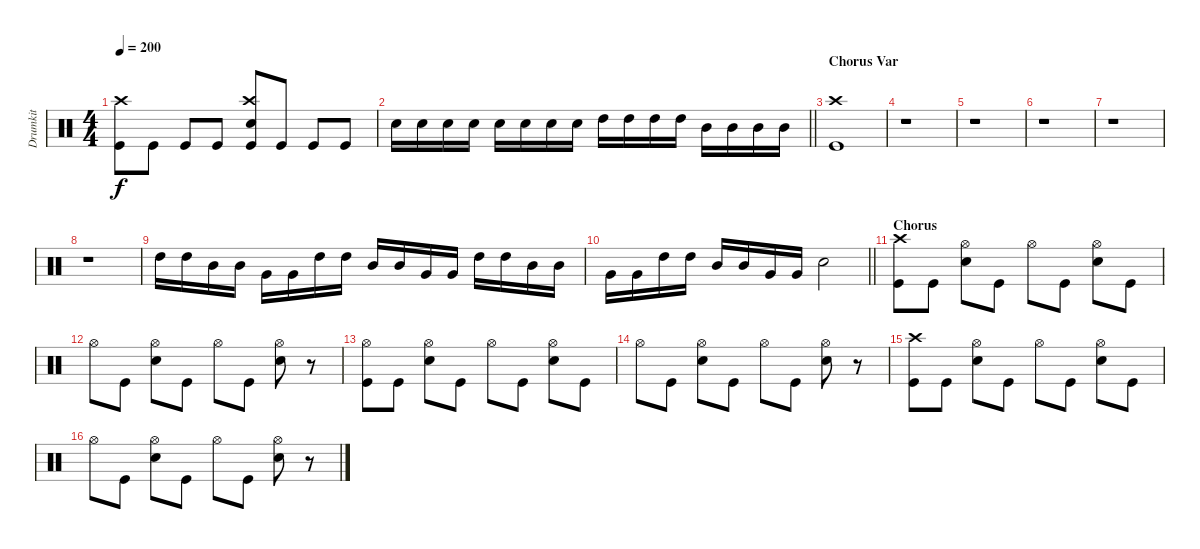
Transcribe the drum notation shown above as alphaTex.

\track ("Drumkit" "Drumkit") {instrument percussion}
\staff {score}
\articulation defaults
\ts (4 4)
\tempo 200
\clef neutral
\ks c
("Kick (hit)" "Crash high (hit)").8{dy f} "Kick (hit)".8 "Kick (hit)".8 "Kick (hit)".8 ("Kick (hit)" "Snare (hit) 2" "Crash high (hit)").8 "Kick (hit)".8 "Kick (hit)".8 "Kick (hit)".8 |
\barLineRight lightlight "Snare (hit) 2".16 "Snare (hit) 2".16 "Snare (hit) 2".16 "Snare (hit) 2".16 "Snare (hit) 2".16 "Snare (hit) 2".16 "Snare (hit) 2".16 "Snare (hit) 2".16 "High Tom (hit)".16 "High Tom (hit)".16 "High Tom (hit)".16 "High Tom (hit)".16 "Mid Tom (hit)".16 "Mid Tom (hit)".16 "Mid Tom (hit)".16 "Mid Tom (hit)".16
|
\section ("" "Chorus Var")
("Kick (hit)" "Crash high (hit)").1 |
r.1 |
r.1 |
r.1 |
r.1 |
r.1 |
"High Tom (hit)".16 "High Tom (hit)".16 "Mid Tom (hit)".16 "Mid Tom (hit)".16 "Very Low Tom (hit)".16 "Very Low Tom (hit)".16 "High Tom (hit)".16 "High Tom (hit)".16 "Mid Tom (hit)".16 "Mid Tom (hit)".16 "Very Low Tom (hit)".16 "Very Low Tom (hit)".16 "High Tom (hit)".16 "High Tom (hit)".16 "Mid Tom (hit)".16 "Mid Tom (hit)".16 |
\barLineRight lightlight "Very Low Tom (hit)".16 "Very Low Tom (hit)".16 "High Tom (hit)".16 "High Tom (hit)".16 "Mid Tom (hit)".16 "Mid Tom (hit)".16 "Very Low Tom (hit)".16 "Very Low Tom (hit)".16 "Snare (hit) 2".2
|
\section ("" "Chorus")
("Crash high (hit)" "Kick (hit)").8 "Kick (hit)".8 ("Hi-Hat (open)" "Snare (hit) 2").8 "Kick (hit)".8 "Hi-Hat (open)".8 "Kick (hit)".8 ("Snare (hit) 2" "Hi-Hat (open)").8 "Kick (hit)".8 |
"Hi-Hat (open)".8 "Kick (hit)".8 ("Hi-Hat (open)" "Snare (hit) 2").8 "Kick (hit)".8 "Hi-Hat (open)".8 "Kick (hit)".8 ("Snare (hit) 2" "Hi-Hat (open)").8 r.8 |
("Hi-Hat (open)" "Kick (hit)").8 "Kick (hit)".8 ("Hi-Hat (open)" "Snare (hit) 2").8 "Kick (hit)".8 "Hi-Hat (open)".8 "Kick (hit)".8 ("Snare (hit) 2" "Hi-Hat (open)").8 "Kick (hit)".8 |
"Hi-Hat (open)".8 "Kick (hit)".8 ("Hi-Hat (open)" "Snare (hit) 2").8 "Kick (hit)".8 "Hi-Hat (open)".8 "Kick (hit)".8 ("Snare (hit) 2" "Hi-Hat (open)").8 r.8 |
("Crash high (hit)" "Kick (hit)").8 "Kick (hit)".8 ("Hi-Hat (open)" "Snare (hit) 2").8 "Kick (hit)".8 "Hi-Hat (open)".8 "Kick (hit)".8 ("Snare (hit) 2" "Hi-Hat (open)").8 "Kick (hit)".8 |
"Hi-Hat (open)".8 "Kick (hit)".8 ("Hi-Hat (open)" "Snare (hit) 2").8 "Kick (hit)".8 "Hi-Hat (open)".8 "Kick (hit)".8 ("Snare (hit) 2" "Hi-Hat (open)").8 r.8
